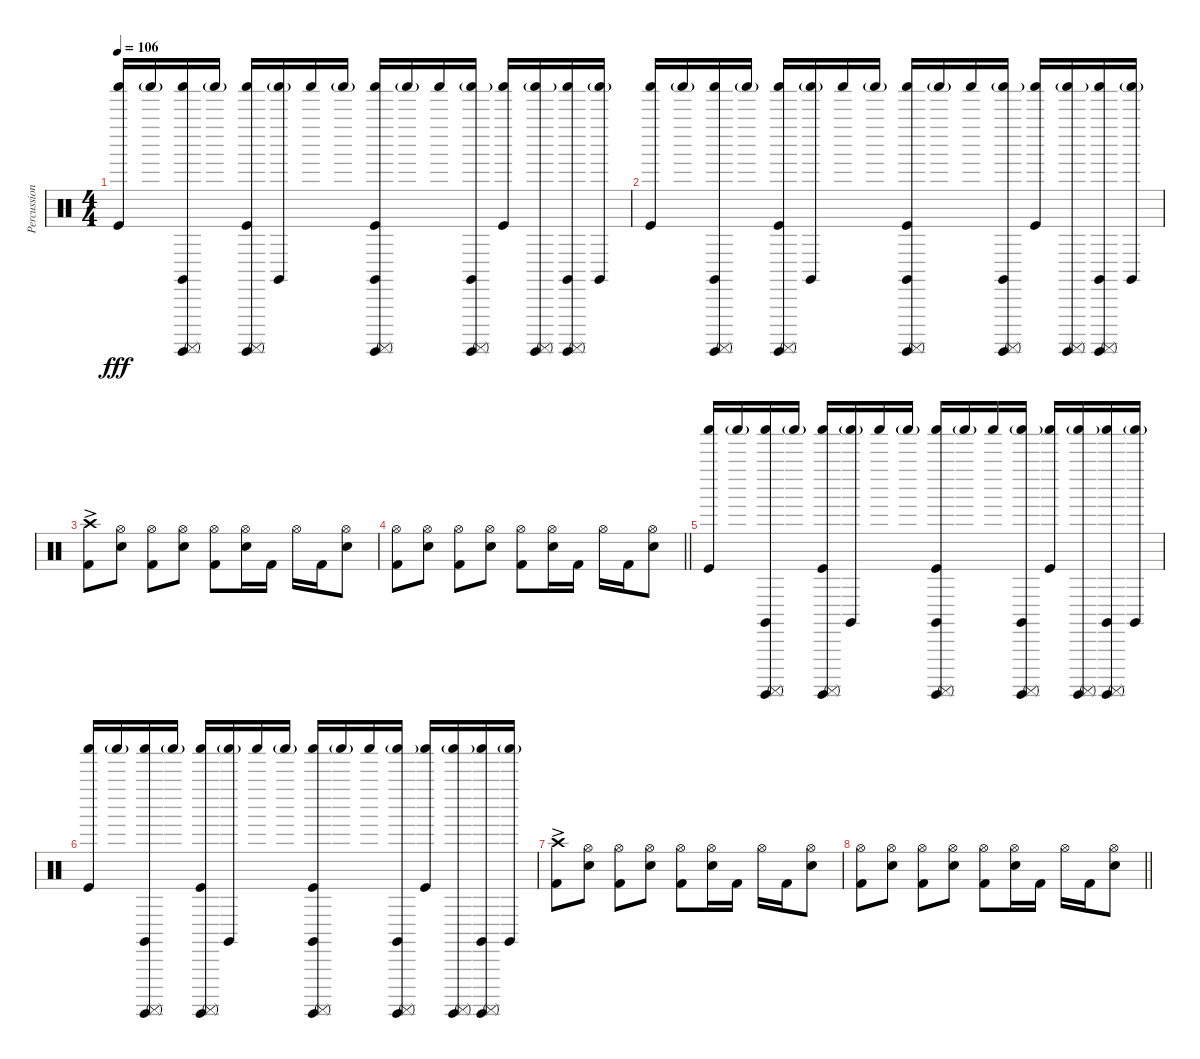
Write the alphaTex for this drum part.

\track ("Percussion 1" "Percussion") {instrument percussion}
\staff {score}
\articulation defaults
\ts (4 4)
\tempo 106
\clef neutral
\ks c
("Shaker (hit)" "Kick (hit)").16{dy fff} "Shaker (hit)"{g}.16 ("Shaker (hit)" "Claves (hit)" "Surdo (hit)" "Surdo (mute)").16 "Shaker (hit)"{g}.16 ("Shaker (hit)" "Kick (hit)" "Surdo (hit)" "Surdo (mute)").16 ("Shaker (hit)"{g} "Claves (hit)").16 "Shaker (hit)".16 "Shaker (hit)"{g}.16 ("Shaker (hit)" "Kick (hit)" "Surdo (hit)" "Surdo (mute)" "Claves (hit)").16 "Shaker (hit)"{g}.16 "Shaker (hit)".16 ("Shaker (hit)"{g} "Claves (hit)" "Surdo (hit)" "Surdo (mute)").16 ("Shaker (hit)" "Kick (hit)").16 ("Shaker (hit)"{g} "Surdo (hit)" "Surdo (mute)").16 ("Shaker (hit)" "Claves (hit)" "Surdo (hit)" "Surdo (mute)").16 ("Shaker (hit)"{g} "Claves (hit)").16 |
("Shaker (hit)" "Kick (hit)").16 "Shaker (hit)"{g}.16 ("Shaker (hit)" "Claves (hit)" "Surdo (hit)" "Surdo (mute)").16 "Shaker (hit)"{g}.16 ("Shaker (hit)" "Kick (hit)" "Surdo (hit)" "Surdo (mute)").16 ("Shaker (hit)"{g} "Claves (hit)").16 "Shaker (hit)".16 "Shaker (hit)"{g}.16 ("Shaker (hit)" "Kick (hit)" "Surdo (hit)" "Surdo (mute)" "Claves (hit)").16 "Shaker (hit)"{g}.16 "Shaker (hit)".16 ("Shaker (hit)"{g} "Claves (hit)" "Surdo (hit)" "Surdo (mute)").16 ("Shaker (hit)" "Kick (hit)").16 ("Shaker (hit)"{g} "Surdo (hit)" "Surdo (mute)").16 ("Shaker (hit)" "Claves (hit)" "Surdo (hit)" "Surdo (mute)").16 ("Shaker (hit)"{g} "Claves (hit)").16 |
("Crash high (hit)"{ac} "Kick (hit) 2").8 ("Hi-Hat (open)" "Electric Snare (hit)").8 ("Hi-Hat (open)" "Kick (hit) 2").8 ("Hi-Hat (open)" "Electric Snare (hit)").8 ("Hi-Hat (open)" "Kick (hit) 2").8 ("Hi-Hat (open)" "Electric Snare (hit)").16 "Kick (hit) 2".16 "Hi-Hat (open)".16 "Kick (hit) 2".16 ("Hi-Hat (open)" "Electric Snare (hit)").8 |
\barLineRight lightlight
("Hi-Hat (open)" "Kick (hit) 2").8 ("Hi-Hat (open)" "Electric Snare (hit)").8 ("Hi-Hat (open)" "Kick (hit) 2").8 ("Hi-Hat (open)" "Electric Snare (hit)").8 ("Hi-Hat (open)" "Kick (hit) 2").8 ("Hi-Hat (open)" "Electric Snare (hit)").16 "Kick (hit) 2".16 "Hi-Hat (open)".16 "Kick (hit) 2".16 ("Hi-Hat (open)" "Electric Snare (hit)").8 |
("Shaker (hit)" "Kick (hit)").16 "Shaker (hit)"{g}.16 ("Shaker (hit)" "Claves (hit)" "Surdo (hit)" "Surdo (mute)").16 "Shaker (hit)"{g}.16 ("Shaker (hit)" "Kick (hit)" "Surdo (hit)" "Surdo (mute)").16 ("Shaker (hit)"{g} "Claves (hit)").16 "Shaker (hit)".16 "Shaker (hit)"{g}.16 ("Shaker (hit)" "Kick (hit)" "Surdo (hit)" "Surdo (mute)" "Claves (hit)").16 "Shaker (hit)"{g}.16 "Shaker (hit)".16 ("Shaker (hit)"{g} "Claves (hit)" "Surdo (hit)" "Surdo (mute)").16 ("Shaker (hit)" "Kick (hit)").16 ("Shaker (hit)"{g} "Surdo (hit)" "Surdo (mute)").16 ("Shaker (hit)" "Claves (hit)" "Surdo (hit)" "Surdo (mute)").16 ("Shaker (hit)"{g} "Claves (hit)").16 |
("Shaker (hit)" "Kick (hit)").16 "Shaker (hit)"{g}.16 ("Shaker (hit)" "Claves (hit)" "Surdo (hit)" "Surdo (mute)").16 "Shaker (hit)"{g}.16 ("Shaker (hit)" "Kick (hit)" "Surdo (hit)" "Surdo (mute)").16 ("Shaker (hit)"{g} "Claves (hit)").16 "Shaker (hit)".16 "Shaker (hit)"{g}.16 ("Shaker (hit)" "Kick (hit)" "Surdo (hit)" "Surdo (mute)" "Claves (hit)").16 "Shaker (hit)"{g}.16 "Shaker (hit)".16 ("Shaker (hit)"{g} "Claves (hit)" "Surdo (hit)" "Surdo (mute)").16 ("Shaker (hit)" "Kick (hit)").16 ("Shaker (hit)"{g} "Surdo (hit)" "Surdo (mute)").16 ("Shaker (hit)" "Claves (hit)" "Surdo (hit)" "Surdo (mute)").16 ("Shaker (hit)"{g} "Claves (hit)").16 |
("Crash high (hit)"{ac} "Kick (hit) 2").8 ("Hi-Hat (open)" "Electric Snare (hit)").8 ("Hi-Hat (open)" "Kick (hit) 2").8 ("Hi-Hat (open)" "Electric Snare (hit)").8 ("Hi-Hat (open)" "Kick (hit) 2").8 ("Hi-Hat (open)" "Electric Snare (hit)").16 "Kick (hit) 2".16 "Hi-Hat (open)".16 "Kick (hit) 2".16 ("Hi-Hat (open)" "Electric Snare (hit)").8 |
\barLineRight lightlight
("Hi-Hat (open)" "Kick (hit) 2").8 ("Hi-Hat (open)" "Electric Snare (hit)").8 ("Hi-Hat (open)" "Kick (hit) 2").8 ("Hi-Hat (open)" "Electric Snare (hit)").8 ("Hi-Hat (open)" "Kick (hit) 2").8 ("Hi-Hat (open)" "Electric Snare (hit)").16 "Kick (hit) 2".16 "Hi-Hat (open)".16 "Kick (hit) 2".16 ("Hi-Hat (open)" "Electric Snare (hit)").8
